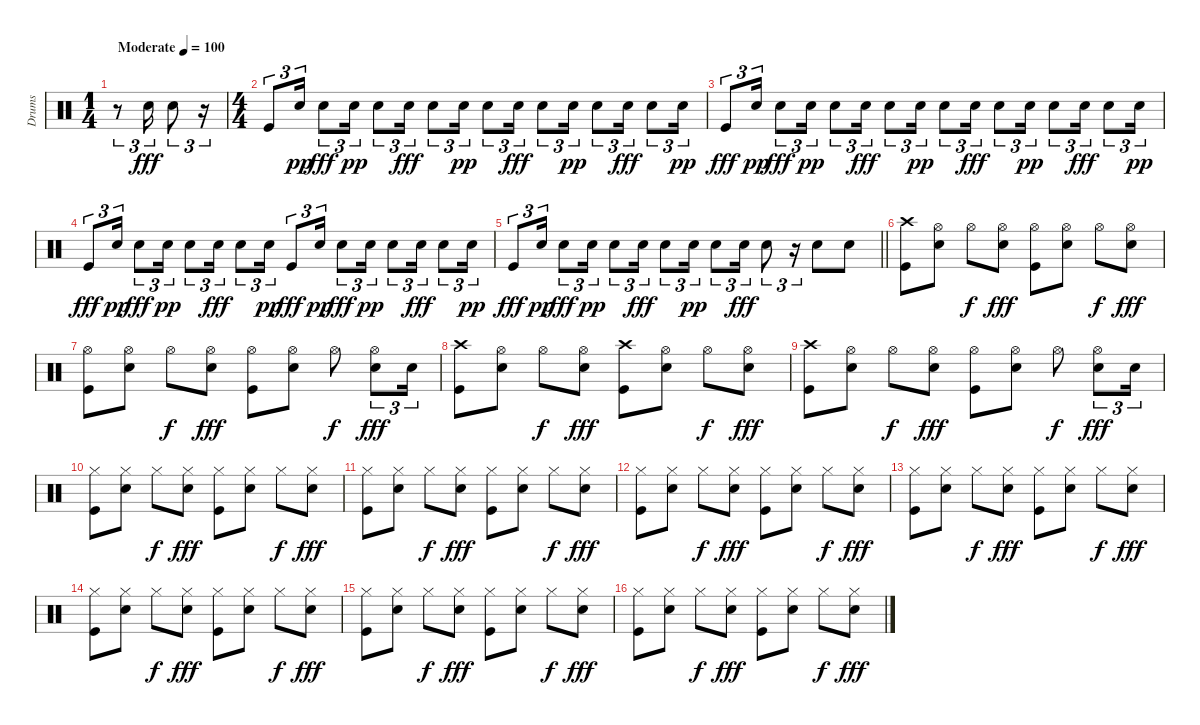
\track ("Drums" "Drums") {instrument percussion}
\staff {score}
\articulation defaults
\ts (1 4)
\tempo (100 "Moderate")
\clef neutral
\ks c
r.8{tu (3 2) dy fff} "Snare (hit) 2".16{tu (3 2)} "Snare (hit) 2".8{tu (3 2)} r.16{tu (3 2)} |
\ts (4 4)
"Kick (hit)".8{tu (3 2)} "Snare (hit) 2".16{tu (3 2) dy pp} "Snare (hit) 2".8{tu (3 2) dy fff} "Snare (hit) 2".16{tu (3 2) dy pp} "Snare (hit) 2".8{tu (3 2)} "Snare (hit) 2".16{tu (3 2) dy fff} "Snare (hit) 2".8{tu (3 2)} "Snare (hit) 2".16{tu (3 2) dy pp} "Snare (hit) 2".8{tu (3 2)} "Snare (hit) 2".16{tu (3 2) dy fff} "Snare (hit) 2".8{tu (3 2)} "Snare (hit) 2".16{tu (3 2) dy pp} "Snare (hit) 2".8{tu (3 2)} "Snare (hit) 2".16{tu (3 2) dy fff} "Snare (hit) 2".8{tu (3 2)} "Snare (hit) 2".16{tu (3 2) dy pp} |
"Kick (hit)".8{tu (3 2) dy fff} "Snare (hit) 2".16{tu (3 2) dy pp} "Snare (hit) 2".8{tu (3 2) dy fff} "Snare (hit) 2".16{tu (3 2) dy pp} "Snare (hit) 2".8{tu (3 2)} "Snare (hit) 2".16{tu (3 2) dy fff} "Snare (hit) 2".8{tu (3 2)} "Snare (hit) 2".16{tu (3 2) dy pp} "Snare (hit) 2".8{tu (3 2)} "Snare (hit) 2".16{tu (3 2) dy fff} "Snare (hit) 2".8{tu (3 2)} "Snare (hit) 2".16{tu (3 2) dy pp} "Snare (hit) 2".8{tu (3 2)} "Snare (hit) 2".16{tu (3 2) dy fff} "Snare (hit) 2".8{tu (3 2)} "Snare (hit) 2".16{tu (3 2) dy pp} |
"Kick (hit)".8{tu (3 2) dy fff} "Snare (hit) 2".16{tu (3 2) dy pp} "Snare (hit) 2".8{tu (3 2) dy fff} "Snare (hit) 2".16{tu (3 2) dy pp} "Snare (hit) 2".8{tu (3 2)} "Snare (hit) 2".16{tu (3 2) dy fff} "Snare (hit) 2".8{tu (3 2)} "Snare (hit) 2".16{tu (3 2) dy pp} "Kick (hit)".8{tu (3 2) dy fff} "Snare (hit) 2".16{tu (3 2) dy pp} "Snare (hit) 2".8{tu (3 2) dy fff} "Snare (hit) 2".16{tu (3 2) dy pp} "Snare (hit) 2".8{tu (3 2)} "Snare (hit) 2".16{tu (3 2) dy fff} "Snare (hit) 2".8{tu (3 2)} "Snare (hit) 2".16{tu (3 2) dy pp} |
\barLineRight lightlight "Kick (hit)".8{tu (3 2) dy fff} "Snare (hit) 2".16{tu (3 2) dy pp} "Snare (hit) 2".8{tu (3 2) dy fff} "Snare (hit) 2".16{tu (3 2) dy pp} "Snare (hit) 2".8{tu (3 2)} "Snare (hit) 2".16{tu (3 2) dy fff} "Snare (hit) 2".8{tu (3 2)} "Snare (hit) 2".16{tu (3 2) dy pp} "Snare (hit) 2".8{tu (3 2)} "Snare (hit) 2".16{tu (3 2) dy fff} "Snare (hit) 2".8{tu (3 2)}
r.16{tu (3 2)} "Snare (hit) 2".8 "Snare (hit) 2".8 |
("Crash high (hit)" "Kick (hit)").8 ("Hi-Hat (open)" "Snare (hit) 2").8 "Hi-Hat (open)".8{dy f} ("Hi-Hat (open)" "Snare (hit) 2").8{dy fff} ("Hi-Hat (open)" "Kick (hit)").8 ("Hi-Hat (open)" "Snare (hit) 2").8 "Hi-Hat (open)".8{dy f} ("Hi-Hat (open)" "Snare (hit) 2").8{dy fff} |
("Hi-Hat (open)" "Kick (hit)").8 ("Hi-Hat (open)" "Snare (hit) 2").8 "Hi-Hat (open)".8{dy f} ("Hi-Hat (open)" "Snare (hit) 2").8{dy fff} ("Hi-Hat (open)" "Kick (hit)").8 ("Hi-Hat (open)" "Snare (hit) 2").8 "Hi-Hat (open)".8{dy f} ("Hi-Hat (open)" "Snare (hit) 2").8{tu (3 2) dy fff} "Snare (hit) 2".16{tu (3 2)} |
("Crash high (hit)" "Kick (hit)").8 ("Hi-Hat (open)" "Snare (hit) 2").8 "Hi-Hat (open)".8{dy f} ("Hi-Hat (open)" "Snare (hit) 2").8{dy fff} ("Crash high (hit)" "Kick (hit)").8 ("Hi-Hat (open)" "Snare (hit) 2").8 "Hi-Hat (open)".8{dy f} ("Hi-Hat (open)" "Snare (hit) 2").8{dy fff} |
("Crash high (hit)" "Kick (hit)").8 ("Hi-Hat (open)" "Snare (hit) 2").8 "Hi-Hat (open)".8{dy f} ("Hi-Hat (open)" "Snare (hit) 2").8{dy fff} ("Hi-Hat (open)" "Kick (hit)").8 ("Hi-Hat (open)" "Snare (hit) 2").8 "Hi-Hat (open)".8{dy f} ("Hi-Hat (open)" "Snare (hit) 2").8{tu (3 2) dy fff} "Snare (hit) 2".16{tu (3 2)} |
("Hi-Hat (closed)" "Kick (hit)").8 ("Hi-Hat (closed)" "Snare (hit) 2").8 "Hi-Hat (closed)".8{dy f} ("Hi-Hat (closed)" "Snare (hit) 2").8{dy fff} ("Hi-Hat (closed)" "Kick (hit)").8 ("Hi-Hat (closed)" "Snare (hit) 2").8 "Hi-Hat (closed)".8{dy f} ("Hi-Hat (closed)" "Snare (hit) 2").8{dy fff} |
("Hi-Hat (closed)" "Kick (hit)").8 ("Hi-Hat (closed)" "Snare (hit) 2").8 "Hi-Hat (closed)".8{dy f} ("Hi-Hat (closed)" "Snare (hit) 2").8{dy fff} ("Hi-Hat (closed)" "Kick (hit)").8 ("Hi-Hat (closed)" "Snare (hit) 2").8 "Hi-Hat (closed)".8{dy f} ("Hi-Hat (closed)" "Snare (hit) 2").8{dy fff} |
("Hi-Hat (closed)" "Kick (hit)").8 ("Hi-Hat (closed)" "Snare (hit) 2").8 "Hi-Hat (closed)".8{dy f} ("Hi-Hat (closed)" "Snare (hit) 2").8{dy fff} ("Hi-Hat (closed)" "Kick (hit)").8 ("Hi-Hat (closed)" "Snare (hit) 2").8 "Hi-Hat (closed)".8{dy f} ("Hi-Hat (closed)" "Snare (hit) 2").8{dy fff} |
("Hi-Hat (closed)" "Kick (hit)").8 ("Hi-Hat (closed)" "Snare (hit) 2").8 "Hi-Hat (closed)".8{dy f} ("Hi-Hat (closed)" "Snare (hit) 2").8{dy fff} ("Hi-Hat (closed)" "Kick (hit)").8 ("Hi-Hat (closed)" "Snare (hit) 2").8 "Hi-Hat (closed)".8{dy f} ("Hi-Hat (closed)" "Snare (hit) 2").8{dy fff} |
("Hi-Hat (closed)" "Kick (hit)").8 ("Hi-Hat (closed)" "Snare (hit) 2").8 "Hi-Hat (closed)".8{dy f} ("Hi-Hat (closed)" "Snare (hit) 2").8{dy fff} ("Hi-Hat (closed)" "Kick (hit)").8 ("Hi-Hat (closed)" "Snare (hit) 2").8 "Hi-Hat (closed)".8{dy f} ("Hi-Hat (closed)" "Snare (hit) 2").8{dy fff} |
("Hi-Hat (closed)" "Kick (hit)").8 ("Hi-Hat (closed)" "Snare (hit) 2").8 "Hi-Hat (closed)".8{dy f} ("Hi-Hat (closed)" "Snare (hit) 2").8{dy fff} ("Hi-Hat (closed)" "Kick (hit)").8 ("Hi-Hat (closed)" "Snare (hit) 2").8 "Hi-Hat (closed)".8{dy f} ("Hi-Hat (closed)" "Snare (hit) 2").8{dy fff} |
("Hi-Hat (closed)" "Kick (hit)").8 ("Hi-Hat (closed)" "Snare (hit) 2").8 "Hi-Hat (closed)".8{dy f} ("Hi-Hat (closed)" "Snare (hit) 2").8{dy fff} ("Hi-Hat (closed)" "Kick (hit)").8 ("Hi-Hat (closed)" "Snare (hit) 2").8 "Hi-Hat (closed)".8{dy f} ("Hi-Hat (closed)" "Snare (hit) 2").8{dy fff}
